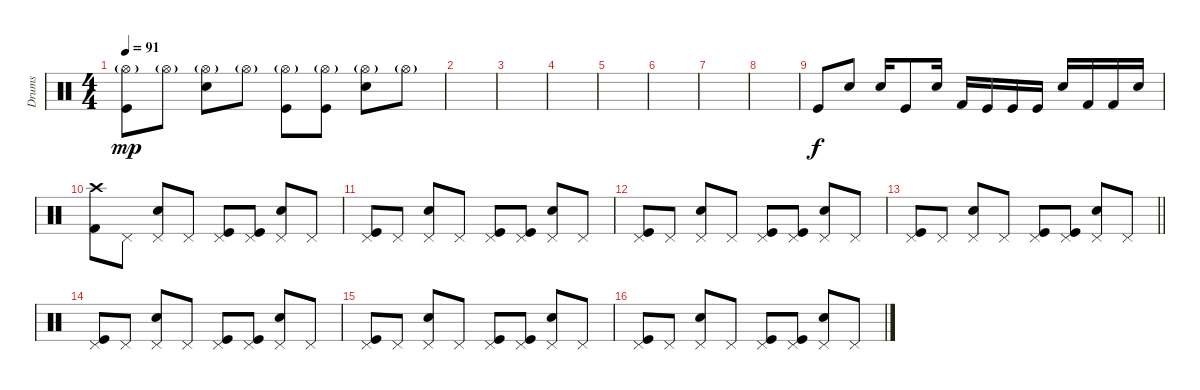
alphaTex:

\track ("Drums" "Drums") {instrument percussion}
\staff {score}
\articulation defaults
\ts (4 4)
\tempo 91
\clef neutral
\ks c
("Kick (hit)" "Hi-Hat (open)"{g}).8{dy mp} "Hi-Hat (open)"{g}.8 ("Snare (hit) 2" "Hi-Hat (open)"{g}).8 "Hi-Hat (open)"{g}.8 ("Kick (hit)" "Hi-Hat (open)"{g}).8 ("Kick (hit)" "Hi-Hat (open)"{g}).8 ("Snare (hit) 2" "Hi-Hat (open)"{g}).8 "Hi-Hat (open)"{g}.8 |
|
|
|
|
|
|
|
"Kick (hit)".8{dy f} "Snare (hit) 2".8 "Snare (hit) 2".16 "Kick (hit)".8 "Snare (hit) 2".16 "Kick (hit) 2".16 "Kick (hit)".16 "Kick (hit)".16 "Kick (hit)".16 "Snare (hit) 2".16 "Kick (hit) 2".16 "Kick (hit) 2".16 "Snare (hit) 2".16 |
("Crash high (hit)" "Kick (hit) 2").8 "Pedal Hi-Hat (hit)".8 ("Snare (hit) 2" "Pedal Hi-Hat (hit)").8 "Pedal Hi-Hat (hit)".8 ("Kick (hit)" "Pedal Hi-Hat (hit)").8 ("Kick (hit)" "Pedal Hi-Hat (hit)").8 ("Snare (hit) 2" "Pedal Hi-Hat (hit)").8 "Pedal Hi-Hat (hit)".8 |
("Kick (hit)" "Pedal Hi-Hat (hit)").8 "Pedal Hi-Hat (hit)".8 ("Snare (hit) 2" "Pedal Hi-Hat (hit)").8 "Pedal Hi-Hat (hit)".8 ("Kick (hit)" "Pedal Hi-Hat (hit)").8 ("Kick (hit)" "Pedal Hi-Hat (hit)").8 ("Snare (hit) 2" "Pedal Hi-Hat (hit)").8 "Pedal Hi-Hat (hit)".8 |
("Kick (hit)" "Pedal Hi-Hat (hit)").8 "Pedal Hi-Hat (hit)".8 ("Snare (hit) 2" "Pedal Hi-Hat (hit)").8 "Pedal Hi-Hat (hit)".8 ("Kick (hit)" "Pedal Hi-Hat (hit)").8 ("Kick (hit)" "Pedal Hi-Hat (hit)").8 ("Snare (hit) 2" "Pedal Hi-Hat (hit)").8 "Pedal Hi-Hat (hit)".8 |
\barLineRight lightlight
("Kick (hit)" "Pedal Hi-Hat (hit)").8 "Pedal Hi-Hat (hit)".8 ("Snare (hit) 2" "Pedal Hi-Hat (hit)").8 "Pedal Hi-Hat (hit)".8 ("Kick (hit)" "Pedal Hi-Hat (hit)").8 ("Kick (hit)" "Pedal Hi-Hat (hit)").8 ("Snare (hit) 2" "Pedal Hi-Hat (hit)").8 "Pedal Hi-Hat (hit)".8 |
("Kick (hit)" "Pedal Hi-Hat (hit)").8 "Pedal Hi-Hat (hit)".8 ("Snare (hit) 2" "Pedal Hi-Hat (hit)").8 "Pedal Hi-Hat (hit)".8 ("Kick (hit)" "Pedal Hi-Hat (hit)").8 ("Kick (hit)" "Pedal Hi-Hat (hit)").8 ("Snare (hit) 2" "Pedal Hi-Hat (hit)").8 "Pedal Hi-Hat (hit)".8 |
("Kick (hit)" "Pedal Hi-Hat (hit)").8 "Pedal Hi-Hat (hit)".8 ("Snare (hit) 2" "Pedal Hi-Hat (hit)").8 "Pedal Hi-Hat (hit)".8 ("Kick (hit)" "Pedal Hi-Hat (hit)").8 ("Kick (hit)" "Pedal Hi-Hat (hit)").8 ("Snare (hit) 2" "Pedal Hi-Hat (hit)").8 "Pedal Hi-Hat (hit)".8 |
("Kick (hit)" "Pedal Hi-Hat (hit)").8 "Pedal Hi-Hat (hit)".8 ("Snare (hit) 2" "Pedal Hi-Hat (hit)").8 "Pedal Hi-Hat (hit)".8 ("Kick (hit)" "Pedal Hi-Hat (hit)").8 ("Kick (hit)" "Pedal Hi-Hat (hit)").8 ("Snare (hit) 2" "Pedal Hi-Hat (hit)").8 "Pedal Hi-Hat (hit)".8
